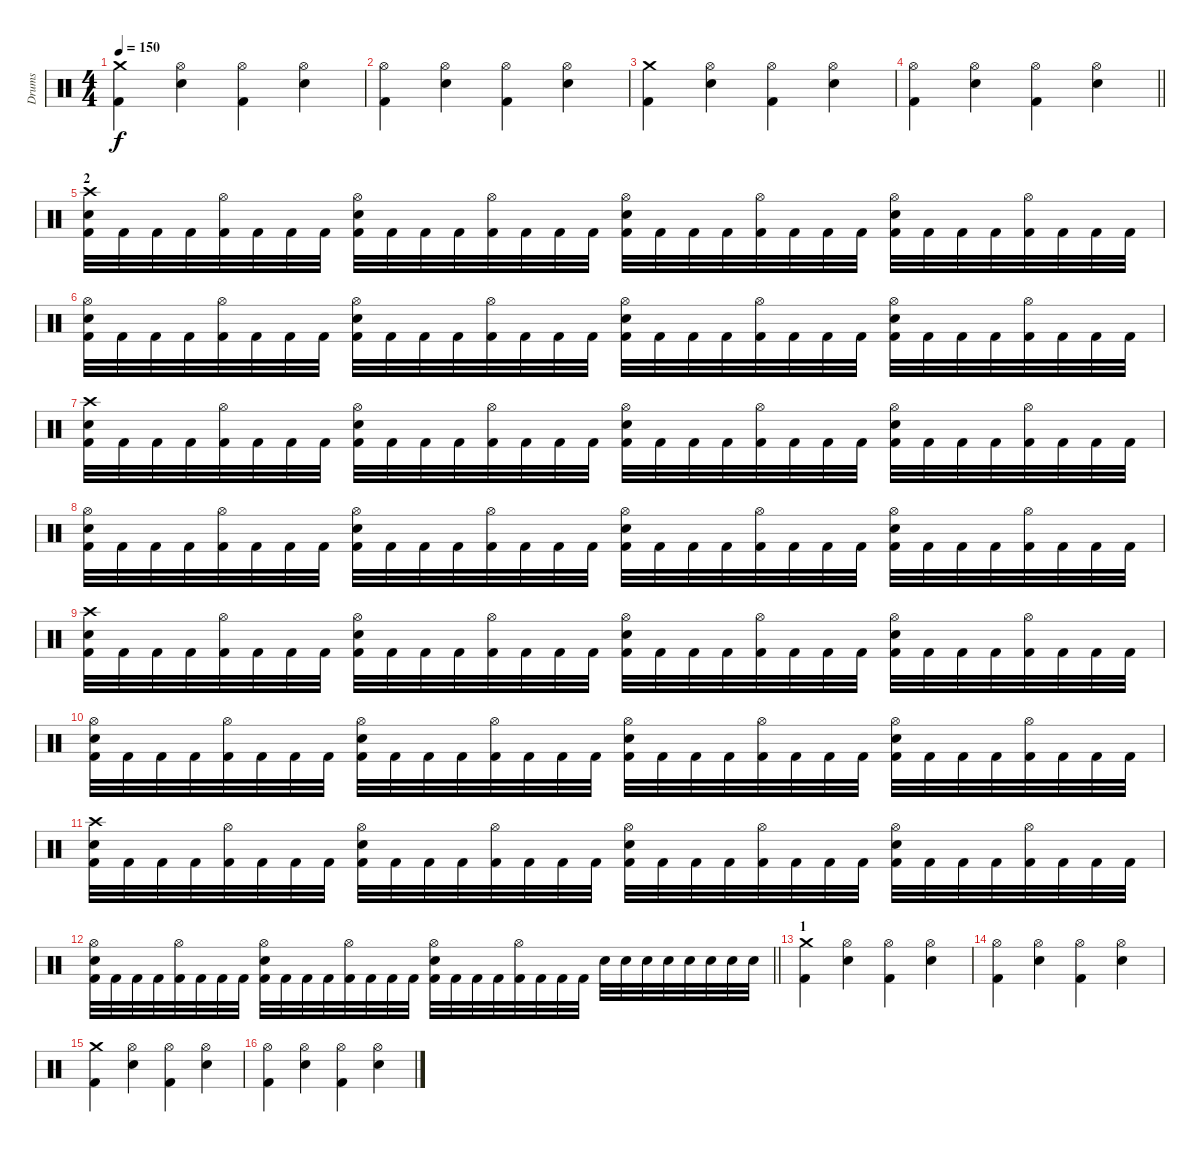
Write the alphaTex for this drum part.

\track ("Drums" "Drums") {instrument percussion}
\staff {score}
\articulation defaults
\ts (4 4)
\tempo 150
\clef neutral
\ks c
("Crash medium (hit)" "Kick (hit) 2").4{dy f} ("Hi-Hat (open)" "Snare (hit) 2").4 ("Hi-Hat (open)" "Kick (hit) 2").4 ("Hi-Hat (open)" "Snare (hit) 2").4 |
("Hi-Hat (open)" "Kick (hit) 2").4 ("Hi-Hat (open)" "Snare (hit) 2").4 ("Hi-Hat (open)" "Kick (hit) 2").4 ("Hi-Hat (open)" "Snare (hit) 2").4 |
("Crash medium (hit)" "Kick (hit) 2").4 ("Hi-Hat (open)" "Snare (hit) 2").4 ("Hi-Hat (open)" "Kick (hit) 2").4 ("Hi-Hat (open)" "Snare (hit) 2").4 |
\barLineRight lightlight
("Hi-Hat (open)" "Kick (hit) 2").4 ("Hi-Hat (open)" "Snare (hit) 2").4 ("Hi-Hat (open)" "Kick (hit) 2").4 ("Hi-Hat (open)" "Snare (hit) 2").4 |
\section ("" "2")
("Crash high (hit)" "Snare (hit) 2" "Kick (hit) 2").32 "Kick (hit) 2".32 "Kick (hit) 2".32 "Kick (hit) 2".32 ("Hi-Hat (open)" "Kick (hit) 2").32 "Kick (hit) 2".32 "Kick (hit) 2".32 "Kick (hit) 2".32 ("Hi-Hat (open)" "Snare (hit) 2" "Kick (hit) 2").32 "Kick (hit) 2".32 "Kick (hit) 2".32 "Kick (hit) 2".32 ("Hi-Hat (open)" "Kick (hit) 2").32 "Kick (hit) 2".32 "Kick (hit) 2".32 "Kick (hit) 2".32 ("Hi-Hat (open)" "Snare (hit) 2" "Kick (hit) 2").32 "Kick (hit) 2".32 "Kick (hit) 2".32 "Kick (hit) 2".32 ("Hi-Hat (open)" "Kick (hit) 2").32 "Kick (hit) 2".32 "Kick (hit) 2".32 "Kick (hit) 2".32 ("Hi-Hat (open)" "Snare (hit) 2" "Kick (hit) 2").32 "Kick (hit) 2".32 "Kick (hit) 2".32 "Kick (hit) 2".32 ("Hi-Hat (open)" "Kick (hit) 2").32 "Kick (hit) 2".32 "Kick (hit) 2".32 "Kick (hit) 2".32 |
("Hi-Hat (open)" "Snare (hit) 2" "Kick (hit) 2").32 "Kick (hit) 2".32 "Kick (hit) 2".32 "Kick (hit) 2".32 ("Hi-Hat (open)" "Kick (hit) 2").32 "Kick (hit) 2".32 "Kick (hit) 2".32 "Kick (hit) 2".32 ("Hi-Hat (open)" "Snare (hit) 2" "Kick (hit) 2").32 "Kick (hit) 2".32 "Kick (hit) 2".32 "Kick (hit) 2".32 ("Hi-Hat (open)" "Kick (hit) 2").32 "Kick (hit) 2".32 "Kick (hit) 2".32 "Kick (hit) 2".32 ("Hi-Hat (open)" "Snare (hit) 2" "Kick (hit) 2").32 "Kick (hit) 2".32 "Kick (hit) 2".32 "Kick (hit) 2".32 ("Hi-Hat (open)" "Kick (hit) 2").32 "Kick (hit) 2".32 "Kick (hit) 2".32 "Kick (hit) 2".32 ("Hi-Hat (open)" "Snare (hit) 2" "Kick (hit) 2").32 "Kick (hit) 2".32 "Kick (hit) 2".32 "Kick (hit) 2".32 ("Hi-Hat (open)" "Kick (hit) 2").32 "Kick (hit) 2".32 "Kick (hit) 2".32 "Kick (hit) 2".32 |
("Crash high (hit)" "Snare (hit) 2" "Kick (hit) 2").32 "Kick (hit) 2".32 "Kick (hit) 2".32 "Kick (hit) 2".32 ("Hi-Hat (open)" "Kick (hit) 2").32 "Kick (hit) 2".32 "Kick (hit) 2".32 "Kick (hit) 2".32 ("Hi-Hat (open)" "Snare (hit) 2" "Kick (hit) 2").32 "Kick (hit) 2".32 "Kick (hit) 2".32 "Kick (hit) 2".32 ("Hi-Hat (open)" "Kick (hit) 2").32 "Kick (hit) 2".32 "Kick (hit) 2".32 "Kick (hit) 2".32 ("Hi-Hat (open)" "Snare (hit) 2" "Kick (hit) 2").32 "Kick (hit) 2".32 "Kick (hit) 2".32 "Kick (hit) 2".32 ("Hi-Hat (open)" "Kick (hit) 2").32 "Kick (hit) 2".32 "Kick (hit) 2".32 "Kick (hit) 2".32 ("Hi-Hat (open)" "Snare (hit) 2" "Kick (hit) 2").32 "Kick (hit) 2".32 "Kick (hit) 2".32 "Kick (hit) 2".32 ("Hi-Hat (open)" "Kick (hit) 2").32 "Kick (hit) 2".32 "Kick (hit) 2".32 "Kick (hit) 2".32 |
("Hi-Hat (open)" "Snare (hit) 2" "Kick (hit) 2").32 "Kick (hit) 2".32 "Kick (hit) 2".32 "Kick (hit) 2".32 ("Hi-Hat (open)" "Kick (hit) 2").32 "Kick (hit) 2".32 "Kick (hit) 2".32 "Kick (hit) 2".32 ("Hi-Hat (open)" "Snare (hit) 2" "Kick (hit) 2").32 "Kick (hit) 2".32 "Kick (hit) 2".32 "Kick (hit) 2".32 ("Hi-Hat (open)" "Kick (hit) 2").32 "Kick (hit) 2".32 "Kick (hit) 2".32 "Kick (hit) 2".32 ("Hi-Hat (open)" "Snare (hit) 2" "Kick (hit) 2").32 "Kick (hit) 2".32 "Kick (hit) 2".32 "Kick (hit) 2".32 ("Hi-Hat (open)" "Kick (hit) 2").32 "Kick (hit) 2".32 "Kick (hit) 2".32 "Kick (hit) 2".32 ("Hi-Hat (open)" "Snare (hit) 2" "Kick (hit) 2").32 "Kick (hit) 2".32 "Kick (hit) 2".32 "Kick (hit) 2".32 ("Hi-Hat (open)" "Kick (hit) 2").32 "Kick (hit) 2".32 "Kick (hit) 2".32 "Kick (hit) 2".32 |
("Crash high (hit)" "Snare (hit) 2" "Kick (hit) 2").32 "Kick (hit) 2".32 "Kick (hit) 2".32 "Kick (hit) 2".32 ("Hi-Hat (open)" "Kick (hit) 2").32 "Kick (hit) 2".32 "Kick (hit) 2".32 "Kick (hit) 2".32 ("Hi-Hat (open)" "Snare (hit) 2" "Kick (hit) 2").32 "Kick (hit) 2".32 "Kick (hit) 2".32 "Kick (hit) 2".32 ("Hi-Hat (open)" "Kick (hit) 2").32 "Kick (hit) 2".32 "Kick (hit) 2".32 "Kick (hit) 2".32 ("Hi-Hat (open)" "Snare (hit) 2" "Kick (hit) 2").32 "Kick (hit) 2".32 "Kick (hit) 2".32 "Kick (hit) 2".32 ("Hi-Hat (open)" "Kick (hit) 2").32 "Kick (hit) 2".32 "Kick (hit) 2".32 "Kick (hit) 2".32 ("Hi-Hat (open)" "Snare (hit) 2" "Kick (hit) 2").32 "Kick (hit) 2".32 "Kick (hit) 2".32 "Kick (hit) 2".32 ("Hi-Hat (open)" "Kick (hit) 2").32 "Kick (hit) 2".32 "Kick (hit) 2".32 "Kick (hit) 2".32 |
("Hi-Hat (open)" "Snare (hit) 2" "Kick (hit) 2").32 "Kick (hit) 2".32 "Kick (hit) 2".32 "Kick (hit) 2".32 ("Hi-Hat (open)" "Kick (hit) 2").32 "Kick (hit) 2".32 "Kick (hit) 2".32 "Kick (hit) 2".32 ("Hi-Hat (open)" "Snare (hit) 2" "Kick (hit) 2").32 "Kick (hit) 2".32 "Kick (hit) 2".32 "Kick (hit) 2".32 ("Hi-Hat (open)" "Kick (hit) 2").32 "Kick (hit) 2".32 "Kick (hit) 2".32 "Kick (hit) 2".32 ("Hi-Hat (open)" "Snare (hit) 2" "Kick (hit) 2").32 "Kick (hit) 2".32 "Kick (hit) 2".32 "Kick (hit) 2".32 ("Hi-Hat (open)" "Kick (hit) 2").32 "Kick (hit) 2".32 "Kick (hit) 2".32 "Kick (hit) 2".32 ("Hi-Hat (open)" "Snare (hit) 2" "Kick (hit) 2").32 "Kick (hit) 2".32 "Kick (hit) 2".32 "Kick (hit) 2".32 ("Hi-Hat (open)" "Kick (hit) 2").32 "Kick (hit) 2".32 "Kick (hit) 2".32 "Kick (hit) 2".32 |
("Crash high (hit)" "Snare (hit) 2" "Kick (hit) 2").32 "Kick (hit) 2".32 "Kick (hit) 2".32 "Kick (hit) 2".32 ("Hi-Hat (open)" "Kick (hit) 2").32 "Kick (hit) 2".32 "Kick (hit) 2".32 "Kick (hit) 2".32 ("Hi-Hat (open)" "Snare (hit) 2" "Kick (hit) 2").32 "Kick (hit) 2".32 "Kick (hit) 2".32 "Kick (hit) 2".32 ("Hi-Hat (open)" "Kick (hit) 2").32 "Kick (hit) 2".32 "Kick (hit) 2".32 "Kick (hit) 2".32 ("Hi-Hat (open)" "Snare (hit) 2" "Kick (hit) 2").32 "Kick (hit) 2".32 "Kick (hit) 2".32 "Kick (hit) 2".32 ("Hi-Hat (open)" "Kick (hit) 2").32 "Kick (hit) 2".32 "Kick (hit) 2".32 "Kick (hit) 2".32 ("Hi-Hat (open)" "Snare (hit) 2" "Kick (hit) 2").32 "Kick (hit) 2".32 "Kick (hit) 2".32 "Kick (hit) 2".32 ("Hi-Hat (open)" "Kick (hit) 2").32 "Kick (hit) 2".32 "Kick (hit) 2".32 "Kick (hit) 2".32 |
\barLineRight lightlight
("Hi-Hat (open)" "Snare (hit) 2" "Kick (hit) 2").32 "Kick (hit) 2".32 "Kick (hit) 2".32 "Kick (hit) 2".32 ("Hi-Hat (open)" "Kick (hit) 2").32 "Kick (hit) 2".32 "Kick (hit) 2".32 "Kick (hit) 2".32 ("Hi-Hat (open)" "Snare (hit) 2" "Kick (hit) 2").32 "Kick (hit) 2".32 "Kick (hit) 2".32 "Kick (hit) 2".32 ("Hi-Hat (open)" "Kick (hit) 2").32 "Kick (hit) 2".32 "Kick (hit) 2".32 "Kick (hit) 2".32 ("Hi-Hat (open)" "Snare (hit) 2" "Kick (hit) 2").32 "Kick (hit) 2".32 "Kick (hit) 2".32 "Kick (hit) 2".32 ("Hi-Hat (open)" "Kick (hit) 2").32 "Kick (hit) 2".32 "Kick (hit) 2".32 "Kick (hit) 2".32 "Snare (hit) 2".32 "Snare (hit) 2".32 "Snare (hit) 2".32 "Snare (hit) 2".32 "Snare (hit) 2".32 "Snare (hit) 2".32 "Snare (hit) 2".32 "Snare (hit) 2".32 |
\section ("" "1")
("Crash medium (hit)" "Kick (hit) 2").4 ("Hi-Hat (open)" "Snare (hit) 2").4 ("Hi-Hat (open)" "Kick (hit) 2").4 ("Hi-Hat (open)" "Snare (hit) 2").4 |
("Hi-Hat (open)" "Kick (hit) 2").4 ("Hi-Hat (open)" "Snare (hit) 2").4 ("Hi-Hat (open)" "Kick (hit) 2").4 ("Hi-Hat (open)" "Snare (hit) 2").4 |
("Crash medium (hit)" "Kick (hit) 2").4 ("Hi-Hat (open)" "Snare (hit) 2").4 ("Hi-Hat (open)" "Kick (hit) 2").4 ("Hi-Hat (open)" "Snare (hit) 2").4 |
("Hi-Hat (open)" "Kick (hit) 2").4 ("Hi-Hat (open)" "Snare (hit) 2").4 ("Hi-Hat (open)" "Kick (hit) 2").4 ("Hi-Hat (open)" "Snare (hit) 2").4
